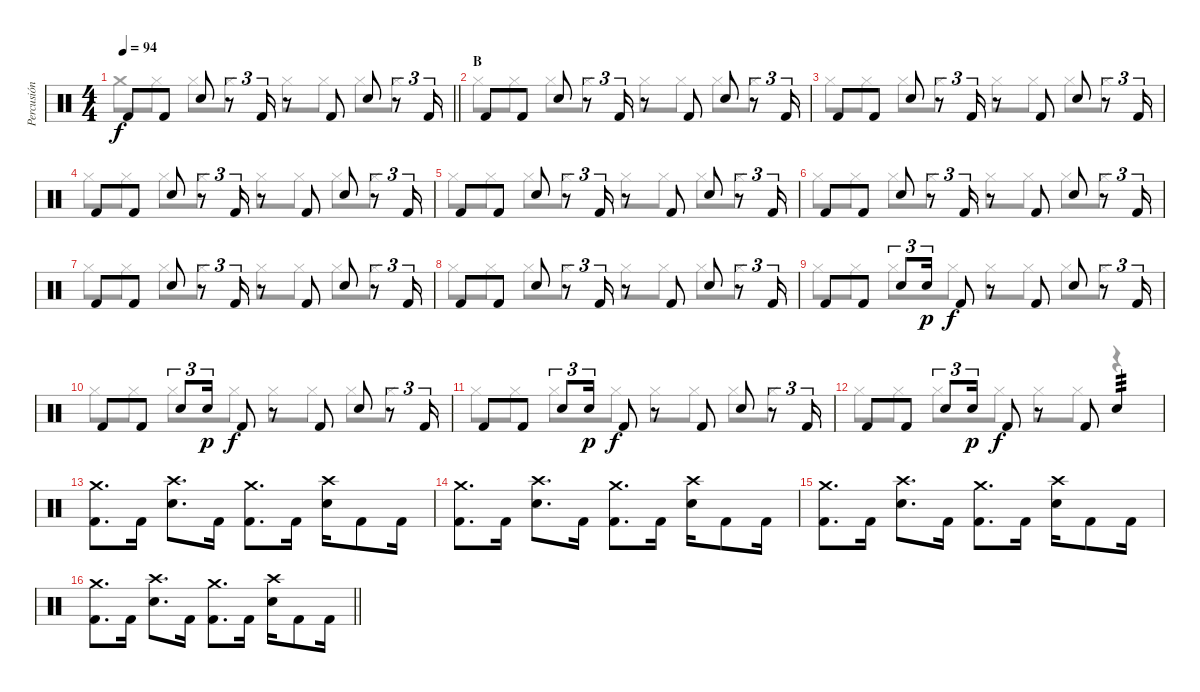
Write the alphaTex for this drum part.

\track ("Percusión" "Percusión") {instrument percussion}
\staff {score}
\articulation defaults
\voice
\ts (4 4)
\tempo 94
\clef neutral
\barLineRight lightlight
\ks c "Kick (hit) 2".8{dy f} "Kick (hit) 2".8 "Electric Snare (hit)".8
r.8{tu (3 2)} "Kick (hit) 2".16{tu (3 2)} r.8 "Kick (hit) 2".8 "Electric Snare (hit)".8 r.8{tu (3 2)} "Kick (hit) 2".16{tu (3 2)} |
\section ("" "B")
"Kick (hit) 2".8 "Kick (hit) 2".8 "Electric Snare (hit)".8 r.8{tu (3 2)} "Kick (hit) 2".16{tu (3 2)} r.8 "Kick (hit) 2".8 "Electric Snare (hit)".8 r.8{tu (3 2)} "Kick (hit) 2".16{tu (3 2)} |
"Kick (hit) 2".8 "Kick (hit) 2".8 "Electric Snare (hit)".8 r.8{tu (3 2)} "Kick (hit) 2".16{tu (3 2)} r.8 "Kick (hit) 2".8 "Electric Snare (hit)".8 r.8{tu (3 2)} "Kick (hit) 2".16{tu (3 2)} |
"Kick (hit) 2".8 "Kick (hit) 2".8 "Electric Snare (hit)".8 r.8{tu (3 2)} "Kick (hit) 2".16{tu (3 2)} r.8 "Kick (hit) 2".8 "Electric Snare (hit)".8 r.8{tu (3 2)} "Kick (hit) 2".16{tu (3 2)} |
"Kick (hit) 2".8 "Kick (hit) 2".8 "Electric Snare (hit)".8 r.8{tu (3 2)} "Kick (hit) 2".16{tu (3 2)} r.8 "Kick (hit) 2".8 "Electric Snare (hit)".8 r.8{tu (3 2)} "Kick (hit) 2".16{tu (3 2)} |
"Kick (hit) 2".8 "Kick (hit) 2".8 "Electric Snare (hit)".8 r.8{tu (3 2)} "Kick (hit) 2".16{tu (3 2)} r.8 "Kick (hit) 2".8 "Electric Snare (hit)".8 r.8{tu (3 2)} "Kick (hit) 2".16{tu (3 2)} |
"Kick (hit) 2".8 "Kick (hit) 2".8 "Electric Snare (hit)".8 r.8{tu (3 2)} "Kick (hit) 2".16{tu (3 2)} r.8 "Kick (hit) 2".8 "Electric Snare (hit)".8 r.8{tu (3 2)} "Kick (hit) 2".16{tu (3 2)} |
"Kick (hit) 2".8 "Kick (hit) 2".8 "Electric Snare (hit)".8 r.8{tu (3 2)} "Kick (hit) 2".16{tu (3 2)} r.8 "Kick (hit) 2".8 "Electric Snare (hit)".8 r.8{tu (3 2)} "Kick (hit) 2".16{tu (3 2)} |
"Kick (hit) 2".8 "Kick (hit) 2".8 "Electric Snare (hit)".8{tu (3 2)} "Electric Snare (hit)".16{tu (3 2) dy p} "Kick (hit) 2".8{dy f} r.8 "Kick (hit) 2".8 "Electric Snare (hit)".8 r.8{tu (3 2)} "Kick (hit) 2".16{tu (3 2)} |
"Kick (hit) 2".8 "Kick (hit) 2".8 "Electric Snare (hit)".8{tu (3 2)} "Electric Snare (hit)".16{tu (3 2) dy p} "Kick (hit) 2".8{dy f} r.8 "Kick (hit) 2".8 "Electric Snare (hit)".8 r.8{tu (3 2)} "Kick (hit) 2".16{tu (3 2)} |
"Kick (hit) 2".8 "Kick (hit) 2".8 "Electric Snare (hit)".8{tu (3 2)} "Electric Snare (hit)".16{tu (3 2) dy p} "Kick (hit) 2".8{dy f} r.8 "Kick (hit) 2".8 "Electric Snare (hit)".8 r.8{tu (3 2)} "Kick (hit) 2".16{tu (3 2)} |
"Kick (hit) 2".8 "Kick (hit) 2".8 "Electric Snare (hit)".8{tu (3 2)} "Electric Snare (hit)".16{tu (3 2) dy p} "Kick (hit) 2".8{dy f} r.8 "Kick (hit) 2".8 "Electric Snare (hit)".4{tp 3} |
("Crash medium (hit)" "Kick (hit) 2").8{d} "Kick (hit) 2".16 ("Crash high (hit)" "Electric Snare (hit)").8{d} "Kick (hit) 2".16 ("Crash medium (hit)" "Kick (hit) 2").8{d} "Kick (hit) 2".16 ("Crash high (hit)" "Electric Snare (hit)").16 "Kick (hit) 2".8 "Kick (hit) 2".16 |
("Crash medium (hit)" "Kick (hit) 2").8{d} "Kick (hit) 2".16 ("Crash high (hit)" "Electric Snare (hit)").8{d} "Kick (hit) 2".16 ("Crash medium (hit)" "Kick (hit) 2").8{d} "Kick (hit) 2".16 ("Crash high (hit)" "Electric Snare (hit)").16 "Kick (hit) 2".8 "Kick (hit) 2".16 |
("Crash medium (hit)" "Kick (hit) 2").8{d} "Kick (hit) 2".16 ("Crash high (hit)" "Electric Snare (hit)").8{d} "Kick (hit) 2".16 ("Crash medium (hit)" "Kick (hit) 2").8{d} "Kick (hit) 2".16 ("Crash high (hit)" "Electric Snare (hit)").16 "Kick (hit) 2".8 "Kick (hit) 2".16 |
\barLineRight lightlight
("Crash medium (hit)" "Kick (hit) 2").8{d} "Kick (hit) 2".16 ("Crash high (hit)" "Electric Snare (hit)").8{d} "Kick (hit) 2".16 ("Crash medium (hit)" "Kick (hit) 2").8{d} "Kick (hit) 2".16 ("Crash high (hit)" "Electric Snare (hit)").16 "Kick (hit) 2".8 "Kick (hit) 2".16
\voice
\clef neutral
\ottava regular
\simile none
\barLineRight lightlight
\ks c "Crash medium (hit)".8{dy f} "Hi-Hat (closed)".8 "Hi-Hat (closed)".8 "Hi-Hat (closed)".8 "Hi-Hat (closed)".8 "Hi-Hat (closed)".8 "Hi-Hat (closed)".8 "Hi-Hat (closed)".8
|
"Hi-Hat (closed)".8 "Hi-Hat (closed)".8 "Hi-Hat (closed)".8 "Hi-Hat (closed)".8 "Hi-Hat (closed)".8 "Hi-Hat (closed)".8 "Hi-Hat (closed)".8 "Hi-Hat (closed)".8 |
"Hi-Hat (closed)".8 "Hi-Hat (closed)".8 "Hi-Hat (closed)".8 "Hi-Hat (closed)".8 "Hi-Hat (closed)".8 "Hi-Hat (closed)".8 "Hi-Hat (closed)".8 "Hi-Hat (closed)".8 |
"Hi-Hat (closed)".8 "Hi-Hat (closed)".8 "Hi-Hat (closed)".8 "Hi-Hat (closed)".8 "Hi-Hat (closed)".8 "Hi-Hat (closed)".8 "Hi-Hat (closed)".8 "Hi-Hat (closed)".8 |
"Hi-Hat (closed)".8 "Hi-Hat (closed)".8 "Hi-Hat (closed)".8 "Hi-Hat (closed)".8 "Hi-Hat (closed)".8 "Hi-Hat (closed)".8 "Hi-Hat (closed)".8 "Hi-Hat (closed)".8 |
"Hi-Hat (closed)".8 "Hi-Hat (closed)".8 "Hi-Hat (closed)".8 "Hi-Hat (closed)".8 "Hi-Hat (closed)".8 "Hi-Hat (closed)".8 "Hi-Hat (closed)".8 "Hi-Hat (closed)".8 |
"Hi-Hat (closed)".8 "Hi-Hat (closed)".8 "Hi-Hat (closed)".8 "Hi-Hat (closed)".8 "Hi-Hat (closed)".8 "Hi-Hat (closed)".8 "Hi-Hat (closed)".8 "Hi-Hat (closed)".8 |
"Hi-Hat (closed)".8 "Hi-Hat (closed)".8 "Hi-Hat (closed)".8 "Hi-Hat (closed)".8 "Hi-Hat (closed)".8 "Hi-Hat (closed)".8 "Hi-Hat (closed)".8 "Hi-Hat (closed)".8 |
"Hi-Hat (closed)".8 "Hi-Hat (closed)".8 "Hi-Hat (closed)".8 "Hi-Hat (closed)".8 "Hi-Hat (closed)".8 "Hi-Hat (closed)".8 "Hi-Hat (closed)".8 "Hi-Hat (closed)".8 |
"Hi-Hat (closed)".8 "Hi-Hat (closed)".8 "Hi-Hat (closed)".8 "Hi-Hat (closed)".8 "Hi-Hat (closed)".8 "Hi-Hat (closed)".8 "Hi-Hat (closed)".8 "Hi-Hat (closed)".8 |
"Hi-Hat (closed)".8 "Hi-Hat (closed)".8 "Hi-Hat (closed)".8 "Hi-Hat (closed)".8 "Hi-Hat (closed)".8 "Hi-Hat (closed)".8 "Hi-Hat (closed)".8 "Hi-Hat (closed)".8 |
"Hi-Hat (closed)".8 "Hi-Hat (closed)".8 "Hi-Hat (closed)".8 "Hi-Hat (closed)".8 "Hi-Hat (closed)".8 "Hi-Hat (closed)".8 r.4 |
|
|
|
\barLineRight lightlight
